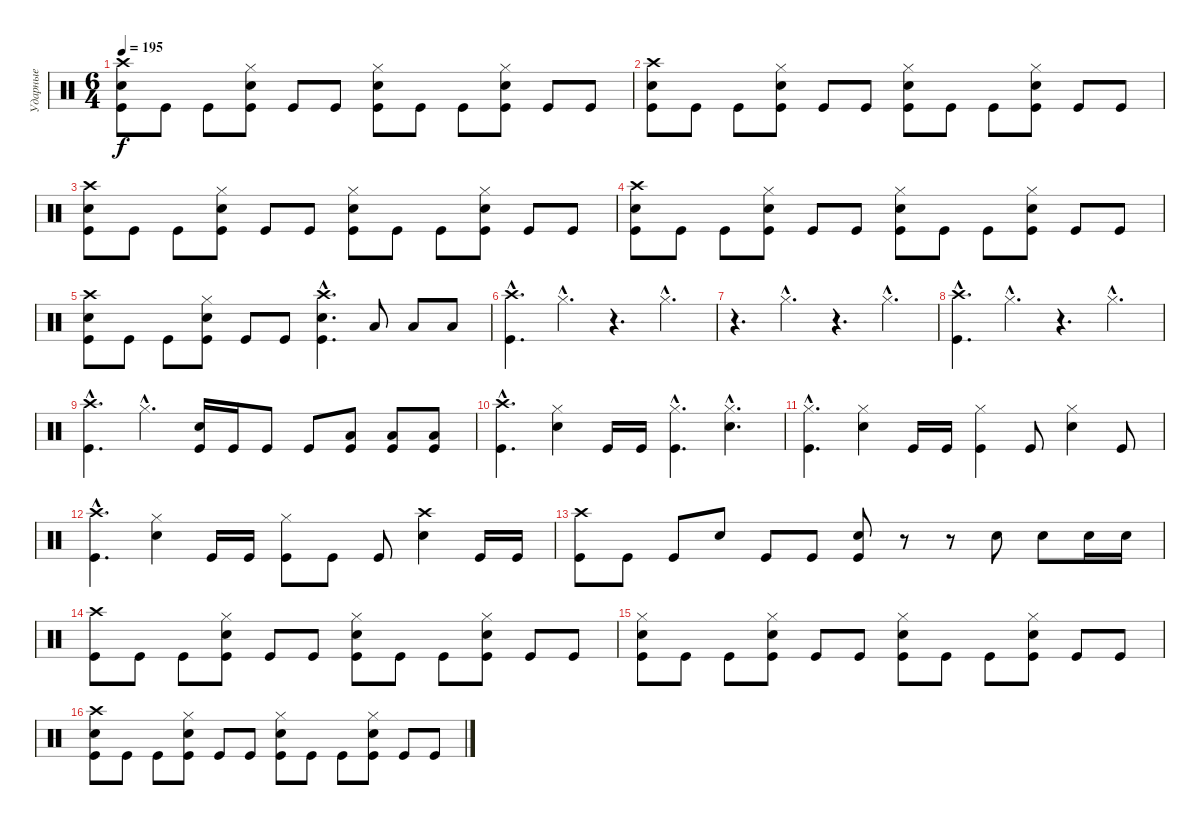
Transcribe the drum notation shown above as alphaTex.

\track ("Ударные" "Ударные") {instrument percussion}
\staff {score}
\articulation defaults
\ts (6 4)
\tempo 195
\clef neutral
\ks c
("Crash high (hit)" "Electric Snare (hit)" "Kick (hit)").8{dy f} "Kick (hit)".8 "Kick (hit)".8 ("Hi-Hat (closed)" "Electric Snare (hit)" "Kick (hit)").8 "Kick (hit)".8 "Kick (hit)".8 ("Hi-Hat (closed)" "Electric Snare (hit)" "Kick (hit)").8 "Kick (hit)".8 "Kick (hit)".8 ("Hi-Hat (closed)" "Electric Snare (hit)" "Kick (hit)").8 "Kick (hit)".8 "Kick (hit)".8 |
("Crash high (hit)" "Electric Snare (hit)" "Kick (hit)").8 "Kick (hit)".8 "Kick (hit)".8 ("Hi-Hat (closed)" "Electric Snare (hit)" "Kick (hit)").8 "Kick (hit)".8 "Kick (hit)".8 ("Hi-Hat (closed)" "Electric Snare (hit)" "Kick (hit)").8 "Kick (hit)".8 "Kick (hit)".8 ("Hi-Hat (closed)" "Electric Snare (hit)" "Kick (hit)").8 "Kick (hit)".8 "Kick (hit)".8 |
("Crash high (hit)" "Electric Snare (hit)" "Kick (hit)").8 "Kick (hit)".8 "Kick (hit)".8 ("Hi-Hat (closed)" "Electric Snare (hit)" "Kick (hit)").8 "Kick (hit)".8 "Kick (hit)".8 ("Hi-Hat (closed)" "Electric Snare (hit)" "Kick (hit)").8 "Kick (hit)".8 "Kick (hit)".8 ("Hi-Hat (closed)" "Electric Snare (hit)" "Kick (hit)").8 "Kick (hit)".8 "Kick (hit)".8 |
("Crash high (hit)" "Electric Snare (hit)" "Kick (hit)").8 "Kick (hit)".8 "Kick (hit)".8 ("Hi-Hat (closed)" "Electric Snare (hit)" "Kick (hit)").8 "Kick (hit)".8 "Kick (hit)".8 ("Hi-Hat (closed)" "Electric Snare (hit)" "Kick (hit)").8 "Kick (hit)".8 "Kick (hit)".8 ("Hi-Hat (closed)" "Electric Snare (hit)" "Kick (hit)").8 "Kick (hit)".8 "Kick (hit)".8 |
("Crash high (hit)" "Electric Snare (hit)" "Kick (hit)").8 "Kick (hit)".8 "Kick (hit)".8 ("Hi-Hat (closed)" "Electric Snare (hit)" "Kick (hit)").8 "Kick (hit)".8 "Kick (hit)".8 ("Crash high (hit)"{hac} "Electric Snare (hit)"{hac} "Kick (hit)"{hac}).4{d} "Low Tom (hit)".8 "Low Tom (hit)".8 "Low Tom (hit)".8 |
("Crash high (hit)"{hac} "Kick (hit)"{hac}).4{d} "Hi-Hat (closed)"{hac}.4{d} r.4{d} "Hi-Hat (closed)"{hac}.4{d} |
r.4{d} "Hi-Hat (closed)"{hac}.4{d} r.4{d} "Hi-Hat (closed)"{hac}.4{d} |
("Crash high (hit)"{hac} "Kick (hit)"{hac}).4{d} "Hi-Hat (closed)"{hac}.4{d} r.4{d} "Hi-Hat (closed)"{hac}.4{d} |
("Crash high (hit)"{hac} "Kick (hit)"{hac}).4{d} "Hi-Hat (closed)"{hac}.4{d} ("Electric Snare (hit)" "Kick (hit)").16 "Kick (hit)".16 "Kick (hit)".8 "Kick (hit)".8 ("Low Tom (hit)" "Kick (hit)").8 ("Low Tom (hit)" "Kick (hit)").8 ("Low Tom (hit)" "Kick (hit)").8 |
("Crash high (hit)"{hac} "Kick (hit)"{hac}).4{d} ("Hi-Hat (closed)" "Electric Snare (hit)").4 "Kick (hit)".16 "Kick (hit)".16 ("Hi-Hat (closed)"{hac} "Kick (hit)"{hac}).4{d} ("Hi-Hat (closed)"{hac} "Electric Snare (hit)"{hac}).4{d} |
("Hi-Hat (closed)"{hac} "Kick (hit)"{hac}).4{d} ("Hi-Hat (closed)" "Electric Snare (hit)").4 "Kick (hit)".16 "Kick (hit)".16 ("Hi-Hat (closed)" "Kick (hit)").4 "Kick (hit)".8 ("Hi-Hat (closed)" "Electric Snare (hit)").4 "Kick (hit)".8 |
("Crash high (hit)"{hac} "Kick (hit)"{hac}).4{d} ("Hi-Hat (closed)" "Electric Snare (hit)").4 "Kick (hit)".16 "Kick (hit)".16 ("Hi-Hat (closed)" "Kick (hit)").8 "Kick (hit)".8 "Kick (hit)".8 ("Crash high (hit)" "Electric Snare (hit)").4 "Kick (hit)".16 "Kick (hit)".16 |
("Crash high (hit)" "Kick (hit)").8 "Kick (hit)".8 "Kick (hit)".8 "Electric Snare (hit)".8 "Kick (hit)".8 "Kick (hit)".8 ("Electric Snare (hit)" "Kick (hit)").8 r.8 r.8 "Electric Snare (hit)".8 "Electric Snare (hit)".8 "Electric Snare (hit)".16 "Electric Snare (hit)".16 |
("Crash high (hit)" "Kick (hit)").8 "Kick (hit)".8 "Kick (hit)".8 ("Hi-Hat (closed)" "Electric Snare (hit)" "Kick (hit)").8 "Kick (hit)".8 "Kick (hit)".8 ("Hi-Hat (closed)" "Electric Snare (hit)" "Kick (hit)").8 "Kick (hit)".8 "Kick (hit)".8 ("Hi-Hat (closed)" "Electric Snare (hit)" "Kick (hit)").8 "Kick (hit)".8 "Kick (hit)".8 |
("Hi-Hat (closed)" "Electric Snare (hit)" "Kick (hit)").8 "Kick (hit)".8 "Kick (hit)".8 ("Hi-Hat (closed)" "Electric Snare (hit)" "Kick (hit)").8 "Kick (hit)".8 "Kick (hit)".8 ("Hi-Hat (closed)" "Electric Snare (hit)" "Kick (hit)").8 "Kick (hit)".8 "Kick (hit)".8 ("Hi-Hat (closed)" "Electric Snare (hit)" "Kick (hit)").8 "Kick (hit)".8 "Kick (hit)".8 |
("Crash high (hit)" "Electric Snare (hit)" "Kick (hit)").8 "Kick (hit)".8 "Kick (hit)".8 ("Hi-Hat (closed)" "Electric Snare (hit)" "Kick (hit)").8 "Kick (hit)".8 "Kick (hit)".8 ("Hi-Hat (closed)" "Electric Snare (hit)" "Kick (hit)").8 "Kick (hit)".8 "Kick (hit)".8 ("Hi-Hat (closed)" "Electric Snare (hit)" "Kick (hit)").8 "Kick (hit)".8 "Kick (hit)".8
